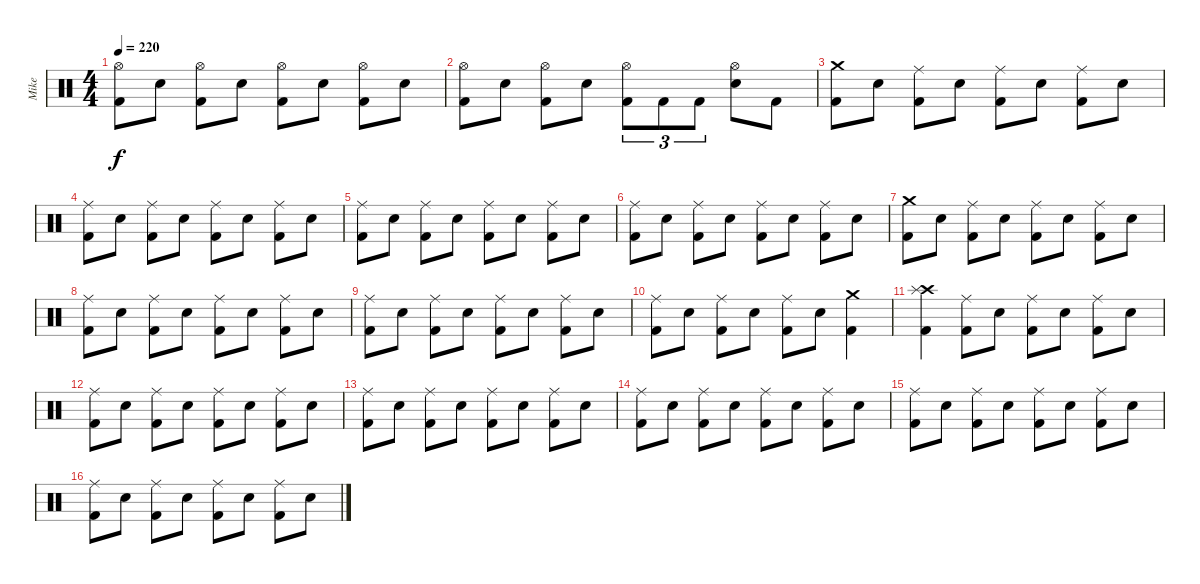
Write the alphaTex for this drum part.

\track ("Mike" "Mike") {instrument percussion}
\staff {score}
\articulation defaults
\ts (4 4)
\tempo 220
\clef neutral
\ks c
("Hi-Hat (open)" "Kick (hit) 2").8{dy f} "Electric Snare (hit)".8 ("Hi-Hat (open)" "Kick (hit) 2").8 "Electric Snare (hit)".8 ("Hi-Hat (open)" "Kick (hit) 2").8 "Electric Snare (hit)".8 ("Hi-Hat (open)" "Kick (hit) 2").8 "Electric Snare (hit)".8 |
("Hi-Hat (open)" "Kick (hit) 2").8 "Electric Snare (hit)".8 ("Hi-Hat (open)" "Kick (hit) 2").8 "Electric Snare (hit)".8 ("Hi-Hat (open)" "Kick (hit) 2").8{tu (3 2)} "Kick (hit) 2".8{tu (3 2)} "Kick (hit) 2".8{tu (3 2)} ("Hi-Hat (open)" "Electric Snare (hit)").8 "Kick (hit) 2".8 |
("Crash medium (hit)" "Kick (hit) 2").8 "Electric Snare (hit)".8 ("Ride (middle)" "Kick (hit) 2").8 "Electric Snare (hit)".8 ("Ride (middle)" "Kick (hit) 2").8 "Electric Snare (hit)".8 ("Ride (middle)" "Kick (hit) 2").8 "Electric Snare (hit)".8 |
("Ride (middle)" "Kick (hit) 2").8 "Electric Snare (hit)".8 ("Ride (middle)" "Kick (hit) 2").8 "Electric Snare (hit)".8 ("Ride (middle)" "Kick (hit) 2").8 "Electric Snare (hit)".8 ("Ride (middle)" "Kick (hit) 2").8 "Electric Snare (hit)".8 |
("Ride (middle)" "Kick (hit) 2").8 "Electric Snare (hit)".8 ("Ride (middle)" "Kick (hit) 2").8 "Electric Snare (hit)".8 ("Ride (middle)" "Kick (hit) 2").8 "Electric Snare (hit)".8 ("Ride (middle)" "Kick (hit) 2").8 "Electric Snare (hit)".8 |
("Ride (middle)" "Kick (hit) 2").8 "Electric Snare (hit)".8 ("Ride (middle)" "Kick (hit) 2").8 "Electric Snare (hit)".8 ("Ride (middle)" "Kick (hit) 2").8 "Electric Snare (hit)".8 ("Ride (middle)" "Kick (hit) 2").8 "Electric Snare (hit)".8 |
("Crash medium (hit)" "Kick (hit) 2").8 "Electric Snare (hit)".8 ("Ride (middle)" "Kick (hit) 2").8 "Electric Snare (hit)".8 ("Ride (middle)" "Kick (hit) 2").8 "Electric Snare (hit)".8 ("Ride (middle)" "Kick (hit) 2").8 "Electric Snare (hit)".8 |
("Ride (middle)" "Kick (hit) 2").8 "Electric Snare (hit)".8 ("Ride (middle)" "Kick (hit) 2").8 "Electric Snare (hit)".8 ("Ride (middle)" "Kick (hit) 2").8 "Electric Snare (hit)".8 ("Ride (middle)" "Kick (hit) 2").8 "Electric Snare (hit)".8 |
("Ride (middle)" "Kick (hit) 2").8 "Electric Snare (hit)".8 ("Ride (middle)" "Kick (hit) 2").8 "Electric Snare (hit)".8 ("Ride (middle)" "Kick (hit) 2").8 "Electric Snare (hit)".8 ("Ride (middle)" "Kick (hit) 2").8 "Electric Snare (hit)".8 |
("Ride (middle)" "Kick (hit) 2").8 "Electric Snare (hit)".8 ("Ride (middle)" "Kick (hit) 2").8 "Electric Snare (hit)".8 ("Ride (middle)" "Kick (hit) 2").8 "Electric Snare (hit)".8 ("Crash medium (hit)" "Kick (hit) 2").4 |
("Crash high (hit)" "Splash (hit)" "Kick (hit) 2").4 ("Ride (middle)" "Kick (hit) 2").8 "Electric Snare (hit)".8 ("Ride (middle)" "Kick (hit) 2").8 "Electric Snare (hit)".8 ("Ride (middle)" "Kick (hit) 2").8 "Electric Snare (hit)".8 |
("Ride (middle)" "Kick (hit) 2").8 "Electric Snare (hit)".8 ("Ride (middle)" "Kick (hit) 2").8 "Electric Snare (hit)".8 ("Ride (middle)" "Kick (hit) 2").8 "Electric Snare (hit)".8 ("Ride (middle)" "Kick (hit) 2").8 "Electric Snare (hit)".8 |
("Ride (middle)" "Kick (hit) 2").8 "Electric Snare (hit)".8 ("Ride (middle)" "Kick (hit) 2").8 "Electric Snare (hit)".8 ("Ride (middle)" "Kick (hit) 2").8 "Electric Snare (hit)".8 ("Ride (middle)" "Kick (hit) 2").8 "Electric Snare (hit)".8 |
("Ride (middle)" "Kick (hit) 2").8 "Electric Snare (hit)".8 ("Ride (middle)" "Kick (hit) 2").8 "Electric Snare (hit)".8 ("Ride (middle)" "Kick (hit) 2").8 "Electric Snare (hit)".8 ("Ride (middle)" "Kick (hit) 2").8 "Electric Snare (hit)".8 |
("Ride (middle)" "Kick (hit) 2").8 "Electric Snare (hit)".8 ("Ride (middle)" "Kick (hit) 2").8 "Electric Snare (hit)".8 ("Ride (middle)" "Kick (hit) 2").8 "Electric Snare (hit)".8 ("Ride (middle)" "Kick (hit) 2").8 "Electric Snare (hit)".8 |
("Ride (middle)" "Kick (hit) 2").8 "Electric Snare (hit)".8 ("Ride (middle)" "Kick (hit) 2").8 "Electric Snare (hit)".8 ("Ride (middle)" "Kick (hit) 2").8 "Electric Snare (hit)".8 ("Ride (middle)" "Kick (hit) 2").8 "Electric Snare (hit)".8
